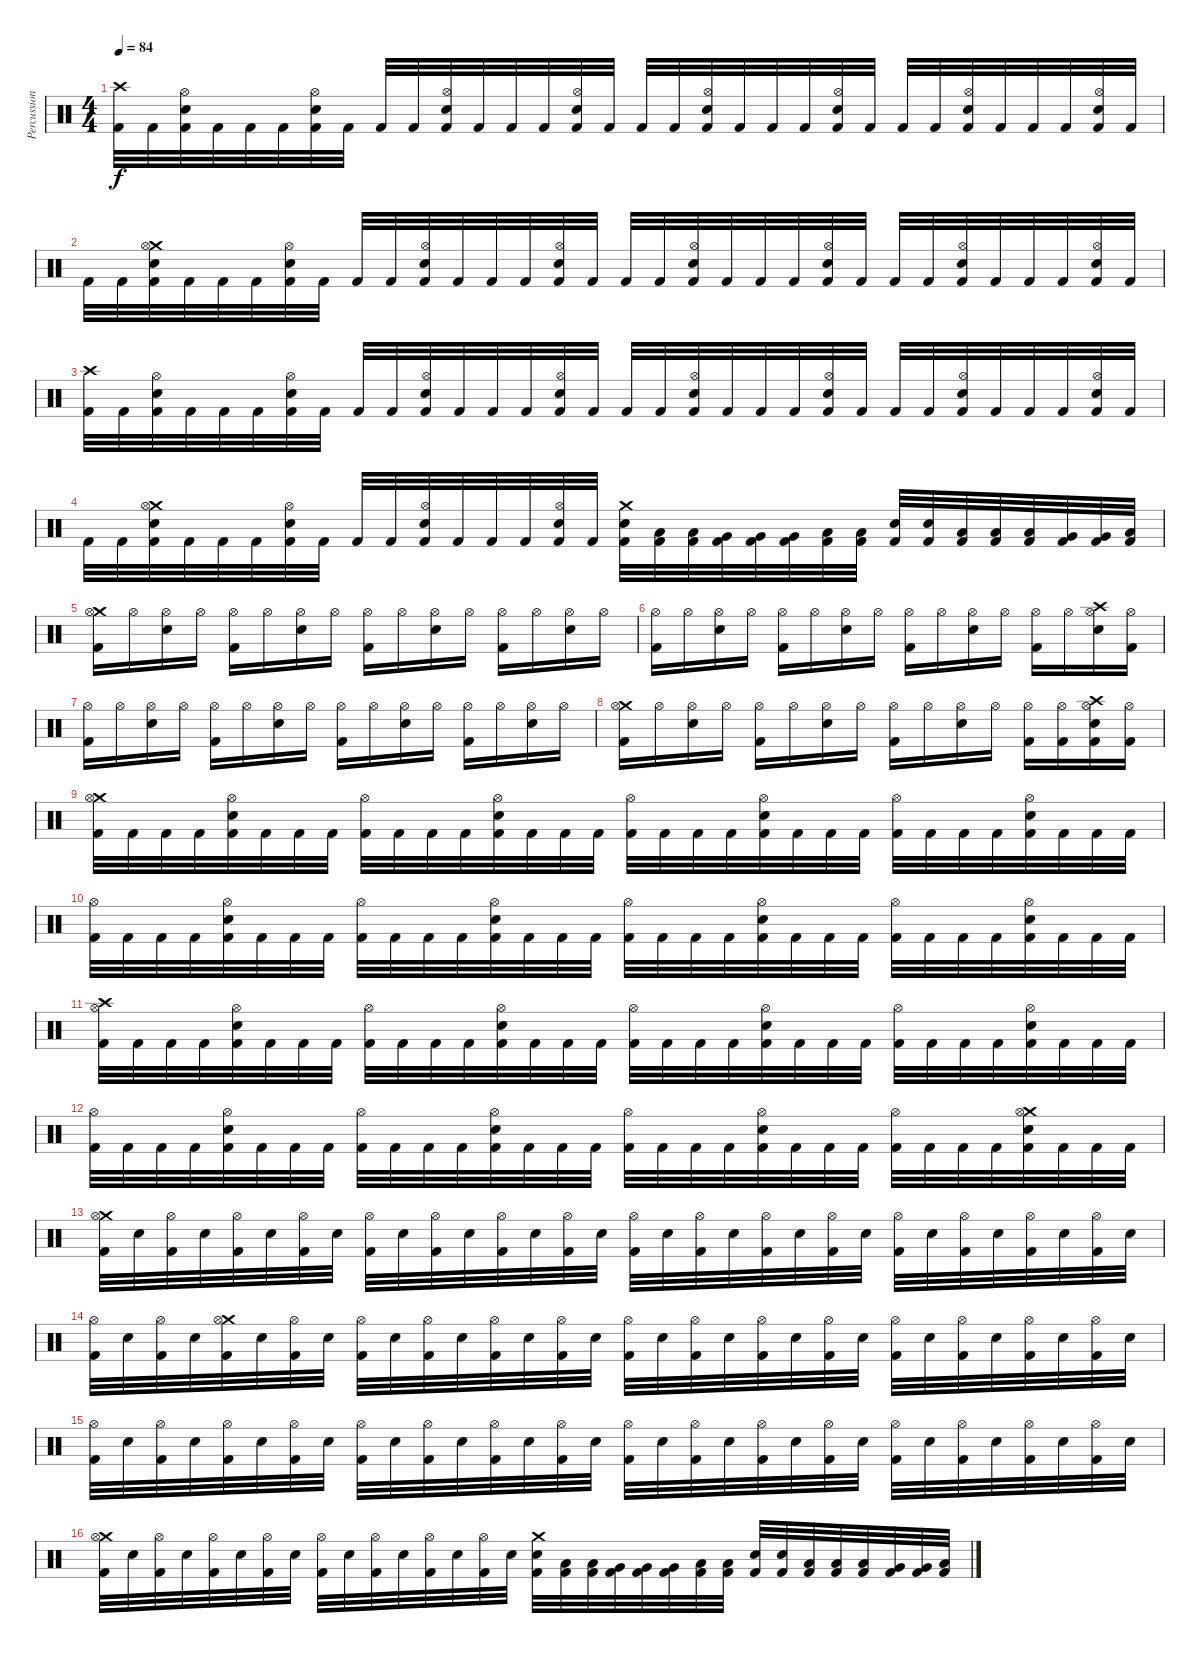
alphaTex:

\track ("Percussion" "Percussion") {instrument percussion}
\staff {score}
\articulation defaults
\ts (4 4)
\tempo 84
\clef neutral
\ks c
("Crash high (hit)" "Kick (hit) 2").32{dy f} "Kick (hit) 2".32 ("Hi-Hat (open)" "Snare (hit) 2" "Kick (hit) 2").32 "Kick (hit) 2".32 "Kick (hit) 2".32 "Kick (hit) 2".32 ("Hi-Hat (open)" "Snare (hit) 2" "Kick (hit) 2").32 "Kick (hit) 2".32 "Kick (hit) 2".32 "Kick (hit) 2".32 ("Hi-Hat (open)" "Snare (hit) 2" "Kick (hit) 2").32 "Kick (hit) 2".32 "Kick (hit) 2".32 "Kick (hit) 2".32 ("Hi-Hat (open)" "Snare (hit) 2" "Kick (hit) 2").32 "Kick (hit) 2".32 "Kick (hit) 2".32 "Kick (hit) 2".32 ("Hi-Hat (open)" "Snare (hit) 2" "Kick (hit) 2").32 "Kick (hit) 2".32 "Kick (hit) 2".32 "Kick (hit) 2".32 ("Hi-Hat (open)" "Snare (hit) 2" "Kick (hit) 2").32 "Kick (hit) 2".32 "Kick (hit) 2".32 "Kick (hit) 2".32 ("Hi-Hat (open)" "Snare (hit) 2" "Kick (hit) 2").32 "Kick (hit) 2".32 "Kick (hit) 2".32 "Kick (hit) 2".32 ("Hi-Hat (open)" "Snare (hit) 2" "Kick (hit) 2").32 "Kick (hit) 2".32 |
"Kick (hit) 2".32 "Kick (hit) 2".32 ("Crash medium (hit)" "Hi-Hat (open)" "Snare (hit) 2" "Kick (hit) 2").32 "Kick (hit) 2".32 "Kick (hit) 2".32 "Kick (hit) 2".32 ("Hi-Hat (open)" "Snare (hit) 2" "Kick (hit) 2").32 "Kick (hit) 2".32 "Kick (hit) 2".32 "Kick (hit) 2".32 ("Hi-Hat (open)" "Snare (hit) 2" "Kick (hit) 2").32 "Kick (hit) 2".32 "Kick (hit) 2".32 "Kick (hit) 2".32 ("Hi-Hat (open)" "Snare (hit) 2" "Kick (hit) 2").32 "Kick (hit) 2".32 "Kick (hit) 2".32 "Kick (hit) 2".32 ("Hi-Hat (open)" "Snare (hit) 2" "Kick (hit) 2").32 "Kick (hit) 2".32 "Kick (hit) 2".32 "Kick (hit) 2".32 ("Hi-Hat (open)" "Snare (hit) 2" "Kick (hit) 2").32 "Kick (hit) 2".32 "Kick (hit) 2".32 "Kick (hit) 2".32 ("Hi-Hat (open)" "Snare (hit) 2" "Kick (hit) 2").32 "Kick (hit) 2".32 "Kick (hit) 2".32 "Kick (hit) 2".32 ("Hi-Hat (open)" "Snare (hit) 2" "Kick (hit) 2").32 "Kick (hit) 2".32 |
("Crash high (hit)" "Kick (hit) 2").32 "Kick (hit) 2".32 ("Hi-Hat (open)" "Snare (hit) 2" "Kick (hit) 2").32 "Kick (hit) 2".32 "Kick (hit) 2".32 "Kick (hit) 2".32 ("Hi-Hat (open)" "Snare (hit) 2" "Kick (hit) 2").32 "Kick (hit) 2".32 "Kick (hit) 2".32 "Kick (hit) 2".32 ("Hi-Hat (open)" "Snare (hit) 2" "Kick (hit) 2").32 "Kick (hit) 2".32 "Kick (hit) 2".32 "Kick (hit) 2".32 ("Hi-Hat (open)" "Snare (hit) 2" "Kick (hit) 2").32 "Kick (hit) 2".32 "Kick (hit) 2".32 "Kick (hit) 2".32 ("Hi-Hat (open)" "Snare (hit) 2" "Kick (hit) 2").32 "Kick (hit) 2".32 "Kick (hit) 2".32 "Kick (hit) 2".32 ("Hi-Hat (open)" "Snare (hit) 2" "Kick (hit) 2").32 "Kick (hit) 2".32 "Kick (hit) 2".32 "Kick (hit) 2".32 ("Hi-Hat (open)" "Snare (hit) 2" "Kick (hit) 2").32 "Kick (hit) 2".32 "Kick (hit) 2".32 "Kick (hit) 2".32 ("Hi-Hat (open)" "Snare (hit) 2" "Kick (hit) 2").32 "Kick (hit) 2".32 |
"Kick (hit) 2".32 "Kick (hit) 2".32 ("Crash medium (hit)" "Hi-Hat (open)" "Snare (hit) 2" "Kick (hit) 2").32 "Kick (hit) 2".32 "Kick (hit) 2".32 "Kick (hit) 2".32 ("Hi-Hat (open)" "Snare (hit) 2" "Kick (hit) 2").32 "Kick (hit) 2".32 "Kick (hit) 2".32 "Kick (hit) 2".32 ("Hi-Hat (open)" "Snare (hit) 2" "Kick (hit) 2").32 "Kick (hit) 2".32 "Kick (hit) 2".32 "Kick (hit) 2".32 ("Hi-Hat (open)" "Snare (hit) 2" "Kick (hit) 2").32 "Kick (hit) 2".32 ("Crash medium (hit)" "Snare (hit) 2" "Kick (hit) 2").32 ("Low Tom (hit)" "Kick (hit) 2").32 ("Low Tom (hit)" "Kick (hit) 2").32 ("Very Low Tom (hit)" "Kick (hit) 2").32 ("Very Low Tom (hit)" "Kick (hit) 2").32 ("Very Low Tom (hit)" "Kick (hit) 2").32 ("Low Floor Tom (hit)" "Kick (hit) 2").32 ("Low Floor Tom (hit)" "Kick (hit) 2").32 ("Snare (hit) 2" "Kick (hit) 2").32 ("Snare (hit) 2" "Kick (hit) 2").32 ("Low Tom (hit)" "Kick (hit) 2").32 ("Low Tom (hit)" "Kick (hit) 2").32 ("Low Tom (hit)" "Kick (hit) 2").32 ("Very Low Tom (hit)" "Kick (hit) 2").32 ("Very Low Tom (hit)" "Kick (hit) 2").32 ("Low Floor Tom (hit)" "Kick (hit) 2").32 |
("Crash medium (hit)" "Hi-Hat (open)" "Kick (hit) 2").16 "Hi-Hat (open)".16 ("Hi-Hat (open)" "Snare (hit) 2").16 "Hi-Hat (open)".16 ("Hi-Hat (open)" "Kick (hit) 2").16 "Hi-Hat (open)".16 ("Hi-Hat (open)" "Snare (hit) 2").16 "Hi-Hat (open)".16 ("Hi-Hat (open)" "Kick (hit) 2").16 "Hi-Hat (open)".16 ("Hi-Hat (open)" "Snare (hit) 2").16 "Hi-Hat (open)".16 ("Hi-Hat (open)" "Kick (hit) 2").16 "Hi-Hat (open)".16 ("Hi-Hat (open)" "Snare (hit) 2").16 "Hi-Hat (open)".16 |
("Hi-Hat (open)" "Kick (hit) 2").16 "Hi-Hat (open)".16 ("Hi-Hat (open)" "Snare (hit) 2").16 "Hi-Hat (open)".16 ("Hi-Hat (open)" "Kick (hit) 2").16 "Hi-Hat (open)".16 ("Hi-Hat (open)" "Snare (hit) 2").16 "Hi-Hat (open)".16 ("Hi-Hat (open)" "Kick (hit) 2").16 "Hi-Hat (open)".16 ("Hi-Hat (open)" "Snare (hit) 2").16 "Hi-Hat (open)".16 ("Hi-Hat (open)" "Kick (hit) 2").16 "Hi-Hat (open)".16 ("Crash high (hit)" "Hi-Hat (open)" "Snare (hit) 2").16 ("Hi-Hat (open)" "Kick (hit) 2").16 |
("Hi-Hat (open)" "Kick (hit) 2").16 "Hi-Hat (open)".16 ("Hi-Hat (open)" "Snare (hit) 2").16 "Hi-Hat (open)".16 ("Hi-Hat (open)" "Kick (hit) 2").16 "Hi-Hat (open)".16 ("Hi-Hat (open)" "Snare (hit) 2").16 "Hi-Hat (open)".16 ("Hi-Hat (open)" "Kick (hit) 2").16 "Hi-Hat (open)".16 ("Hi-Hat (open)" "Snare (hit) 2").16 "Hi-Hat (open)".16 ("Hi-Hat (open)" "Kick (hit) 2").16 "Hi-Hat (open)".16 ("Hi-Hat (open)" "Snare (hit) 2").16 "Hi-Hat (open)".16 |
("Crash medium (hit)" "Hi-Hat (open)" "Kick (hit) 2").16 "Hi-Hat (open)".16 ("Hi-Hat (open)" "Snare (hit) 2").16 "Hi-Hat (open)".16 ("Hi-Hat (open)" "Kick (hit) 2").16 "Hi-Hat (open)".16 ("Hi-Hat (open)" "Snare (hit) 2").16 "Hi-Hat (open)".16 ("Hi-Hat (open)" "Kick (hit) 2").16 "Hi-Hat (open)".16 ("Hi-Hat (open)" "Snare (hit) 2").16 "Hi-Hat (open)".16 ("Hi-Hat (open)" "Kick (hit) 2").16 ("Hi-Hat (open)" "Kick (hit) 2").16 ("Crash high (hit)" "Hi-Hat (open)" "Snare (hit) 2" "Kick (hit) 2").16 ("Hi-Hat (open)" "Kick (hit) 2").16 |
("Crash medium (hit)" "Hi-Hat (open)" "Kick (hit) 2").32 "Kick (hit) 2".32 "Kick (hit) 2".32 "Kick (hit) 2".32 ("Hi-Hat (open)" "Snare (hit) 2" "Kick (hit) 2").32 "Kick (hit) 2".32 "Kick (hit) 2".32 "Kick (hit) 2".32 ("Hi-Hat (open)" "Kick (hit) 2").32 "Kick (hit) 2".32 "Kick (hit) 2".32 "Kick (hit) 2".32 ("Hi-Hat (open)" "Snare (hit) 2" "Kick (hit) 2").32 "Kick (hit) 2".32 "Kick (hit) 2".32 "Kick (hit) 2".32 ("Hi-Hat (open)" "Kick (hit) 2").32 "Kick (hit) 2".32 "Kick (hit) 2".32 "Kick (hit) 2".32 ("Hi-Hat (open)" "Snare (hit) 2" "Kick (hit) 2").32 "Kick (hit) 2".32 "Kick (hit) 2".32 "Kick (hit) 2".32 ("Hi-Hat (open)" "Kick (hit) 2").32 "Kick (hit) 2".32 "Kick (hit) 2".32 "Kick (hit) 2".32 ("Hi-Hat (open)" "Snare (hit) 2" "Kick (hit) 2").32 "Kick (hit) 2".32 "Kick (hit) 2".32 "Kick (hit) 2".32 |
("Hi-Hat (open)" "Kick (hit) 2").32 "Kick (hit) 2".32 "Kick (hit) 2".32 "Kick (hit) 2".32 ("Hi-Hat (open)" "Snare (hit) 2" "Kick (hit) 2").32 "Kick (hit) 2".32 "Kick (hit) 2".32 "Kick (hit) 2".32 ("Hi-Hat (open)" "Kick (hit) 2").32 "Kick (hit) 2".32 "Kick (hit) 2".32 "Kick (hit) 2".32 ("Hi-Hat (open)" "Snare (hit) 2" "Kick (hit) 2").32 "Kick (hit) 2".32 "Kick (hit) 2".32 "Kick (hit) 2".32 ("Hi-Hat (open)" "Kick (hit) 2").32 "Kick (hit) 2".32 "Kick (hit) 2".32 "Kick (hit) 2".32 ("Hi-Hat (open)" "Snare (hit) 2" "Kick (hit) 2").32 "Kick (hit) 2".32 "Kick (hit) 2".32 "Kick (hit) 2".32 ("Hi-Hat (open)" "Kick (hit) 2").32 "Kick (hit) 2".32 "Kick (hit) 2".32 "Kick (hit) 2".32 ("Hi-Hat (open)" "Snare (hit) 2" "Kick (hit) 2").32 "Kick (hit) 2".32 "Kick (hit) 2".32 "Kick (hit) 2".32 |
("Crash high (hit)" "Hi-Hat (open)" "Kick (hit) 2").32 "Kick (hit) 2".32 "Kick (hit) 2".32 "Kick (hit) 2".32 ("Hi-Hat (open)" "Snare (hit) 2" "Kick (hit) 2").32 "Kick (hit) 2".32 "Kick (hit) 2".32 "Kick (hit) 2".32 ("Hi-Hat (open)" "Kick (hit) 2").32 "Kick (hit) 2".32 "Kick (hit) 2".32 "Kick (hit) 2".32 ("Hi-Hat (open)" "Snare (hit) 2" "Kick (hit) 2").32 "Kick (hit) 2".32 "Kick (hit) 2".32 "Kick (hit) 2".32 ("Hi-Hat (open)" "Kick (hit) 2").32 "Kick (hit) 2".32 "Kick (hit) 2".32 "Kick (hit) 2".32 ("Hi-Hat (open)" "Snare (hit) 2" "Kick (hit) 2").32 "Kick (hit) 2".32 "Kick (hit) 2".32 "Kick (hit) 2".32 ("Hi-Hat (open)" "Kick (hit) 2").32 "Kick (hit) 2".32 "Kick (hit) 2".32 "Kick (hit) 2".32 ("Hi-Hat (open)" "Snare (hit) 2" "Kick (hit) 2").32 "Kick (hit) 2".32 "Kick (hit) 2".32 "Kick (hit) 2".32 |
("Hi-Hat (open)" "Kick (hit) 2").32 "Kick (hit) 2".32 "Kick (hit) 2".32 "Kick (hit) 2".32 ("Hi-Hat (open)" "Snare (hit) 2" "Kick (hit) 2").32 "Kick (hit) 2".32 "Kick (hit) 2".32 "Kick (hit) 2".32 ("Hi-Hat (open)" "Kick (hit) 2").32 "Kick (hit) 2".32 "Kick (hit) 2".32 "Kick (hit) 2".32 ("Hi-Hat (open)" "Snare (hit) 2" "Kick (hit) 2").32 "Kick (hit) 2".32 "Kick (hit) 2".32 "Kick (hit) 2".32 ("Hi-Hat (open)" "Kick (hit) 2").32 "Kick (hit) 2".32 "Kick (hit) 2".32 "Kick (hit) 2".32 ("Hi-Hat (open)" "Snare (hit) 2" "Kick (hit) 2").32 "Kick (hit) 2".32 "Kick (hit) 2".32 "Kick (hit) 2".32 ("Hi-Hat (open)" "Kick (hit) 2").32 "Kick (hit) 2".32 "Kick (hit) 2".32 "Kick (hit) 2".32 ("Crash medium (hit)" "Hi-Hat (open)" "Snare (hit) 2" "Kick (hit) 2").32 "Kick (hit) 2".32 "Kick (hit) 2".32 "Kick (hit) 2".32 |
("Crash medium (hit)" "Hi-Hat (open)" "Kick (hit) 2").32 "Snare (hit) 2".32 ("Hi-Hat (open)" "Kick (hit) 2").32 "Snare (hit) 2".32 ("Hi-Hat (open)" "Kick (hit) 2").32 "Snare (hit) 2".32 ("Hi-Hat (open)" "Kick (hit) 2").32 "Snare (hit) 2".32 ("Hi-Hat (open)" "Kick (hit) 2").32 "Snare (hit) 2".32 ("Hi-Hat (open)" "Kick (hit) 2").32 "Snare (hit) 2".32 ("Hi-Hat (open)" "Kick (hit) 2").32 "Snare (hit) 2".32 ("Hi-Hat (open)" "Kick (hit) 2").32 "Snare (hit) 2".32 ("Hi-Hat (open)" "Kick (hit) 2").32 "Snare (hit) 2".32 ("Hi-Hat (open)" "Kick (hit) 2").32 "Snare (hit) 2".32 ("Hi-Hat (open)" "Kick (hit) 2").32 "Snare (hit) 2".32 ("Hi-Hat (open)" "Kick (hit) 2").32 "Snare (hit) 2".32 ("Hi-Hat (open)" "Kick (hit) 2").32 "Snare (hit) 2".32 ("Hi-Hat (open)" "Kick (hit) 2").32 "Snare (hit) 2".32 ("Hi-Hat (open)" "Kick (hit) 2").32 "Snare (hit) 2".32 ("Hi-Hat (open)" "Kick (hit) 2").32 "Snare (hit) 2".32 |
("Hi-Hat (open)" "Kick (hit) 2").32 "Snare (hit) 2".32 ("Hi-Hat (open)" "Kick (hit) 2").32 "Snare (hit) 2".32 ("Crash medium (hit)" "Hi-Hat (open)" "Kick (hit) 2").32 "Snare (hit) 2".32 ("Hi-Hat (open)" "Kick (hit) 2").32 "Snare (hit) 2".32 ("Hi-Hat (open)" "Kick (hit) 2").32 "Snare (hit) 2".32 ("Hi-Hat (open)" "Kick (hit) 2").32 "Snare (hit) 2".32 ("Hi-Hat (open)" "Kick (hit) 2").32 "Snare (hit) 2".32 ("Hi-Hat (open)" "Kick (hit) 2").32 "Snare (hit) 2".32 ("Hi-Hat (open)" "Kick (hit) 2").32 "Snare (hit) 2".32 ("Hi-Hat (open)" "Kick (hit) 2").32 "Snare (hit) 2".32 ("Hi-Hat (open)" "Kick (hit) 2").32 "Snare (hit) 2".32 ("Hi-Hat (open)" "Kick (hit) 2").32 "Snare (hit) 2".32 ("Hi-Hat (open)" "Kick (hit) 2").32 "Snare (hit) 2".32 ("Hi-Hat (open)" "Kick (hit) 2").32 "Snare (hit) 2".32 ("Hi-Hat (open)" "Kick (hit) 2").32 "Snare (hit) 2".32 ("Hi-Hat (open)" "Kick (hit) 2").32 "Snare (hit) 2".32 |
("Hi-Hat (open)" "Kick (hit) 2").32 "Snare (hit) 2".32 ("Hi-Hat (open)" "Kick (hit) 2").32 "Snare (hit) 2".32 ("Hi-Hat (open)" "Kick (hit) 2").32 "Snare (hit) 2".32 ("Hi-Hat (open)" "Kick (hit) 2").32 "Snare (hit) 2".32 ("Hi-Hat (open)" "Kick (hit) 2").32 "Snare (hit) 2".32 ("Hi-Hat (open)" "Kick (hit) 2").32 "Snare (hit) 2".32 ("Hi-Hat (open)" "Kick (hit) 2").32 "Snare (hit) 2".32 ("Hi-Hat (open)" "Kick (hit) 2").32 "Snare (hit) 2".32 ("Hi-Hat (open)" "Kick (hit) 2").32 "Snare (hit) 2".32 ("Hi-Hat (open)" "Kick (hit) 2").32 "Snare (hit) 2".32 ("Hi-Hat (open)" "Kick (hit) 2").32 "Snare (hit) 2".32 ("Hi-Hat (open)" "Kick (hit) 2").32 "Snare (hit) 2".32 ("Hi-Hat (open)" "Kick (hit) 2").32 "Snare (hit) 2".32 ("Hi-Hat (open)" "Kick (hit) 2").32 "Snare (hit) 2".32 ("Hi-Hat (open)" "Kick (hit) 2").32 "Snare (hit) 2".32 ("Hi-Hat (open)" "Kick (hit) 2").32 "Snare (hit) 2".32 |
("Crash medium (hit)" "Hi-Hat (open)" "Kick (hit) 2").32 "Snare (hit) 2".32 ("Hi-Hat (open)" "Kick (hit) 2").32 "Snare (hit) 2".32 ("Hi-Hat (open)" "Kick (hit) 2").32 "Snare (hit) 2".32 ("Hi-Hat (open)" "Kick (hit) 2").32 "Snare (hit) 2".32 ("Hi-Hat (open)" "Kick (hit) 2").32 "Snare (hit) 2".32 ("Hi-Hat (open)" "Kick (hit) 2").32 "Snare (hit) 2".32 ("Hi-Hat (open)" "Kick (hit) 2").32 "Snare (hit) 2".32 ("Hi-Hat (open)" "Kick (hit) 2").32 "Snare (hit) 2".32 ("Crash medium (hit)" "Snare (hit) 2" "Kick (hit) 2").32 ("Low Tom (hit)" "Kick (hit) 2").32 ("Low Tom (hit)" "Kick (hit) 2").32 ("Very Low Tom (hit)" "Kick (hit) 2").32 ("Very Low Tom (hit)" "Kick (hit) 2").32 ("Very Low Tom (hit)" "Kick (hit) 2").32 ("Low Floor Tom (hit)" "Kick (hit) 2").32 ("Low Floor Tom (hit)" "Kick (hit) 2").32 ("Snare (hit) 2" "Kick (hit) 2").32 ("Snare (hit) 2" "Kick (hit) 2").32 ("Low Tom (hit)" "Kick (hit) 2").32 ("Low Tom (hit)" "Kick (hit) 2").32 ("Low Tom (hit)" "Kick (hit) 2").32 ("Very Low Tom (hit)" "Kick (hit) 2").32 ("Very Low Tom (hit)" "Kick (hit) 2").32 ("Low Floor Tom (hit)" "Kick (hit) 2").32
